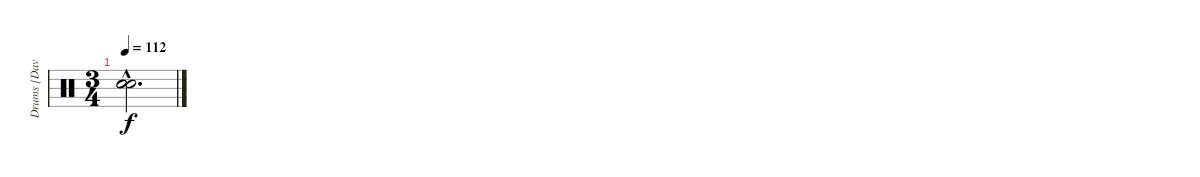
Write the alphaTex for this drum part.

\track ("Drums [Dave Lombardo]" "Drums [Dav") {instrument percussion}
\staff {score}
\articulation defaults
\ts (3 4)
\tempo 112
\clef neutral
\ks c
("Snare (hit)"{hac t} "Snare (hit)"{hac t} "Snare (hit)"{hac t}).2{d dy f}
